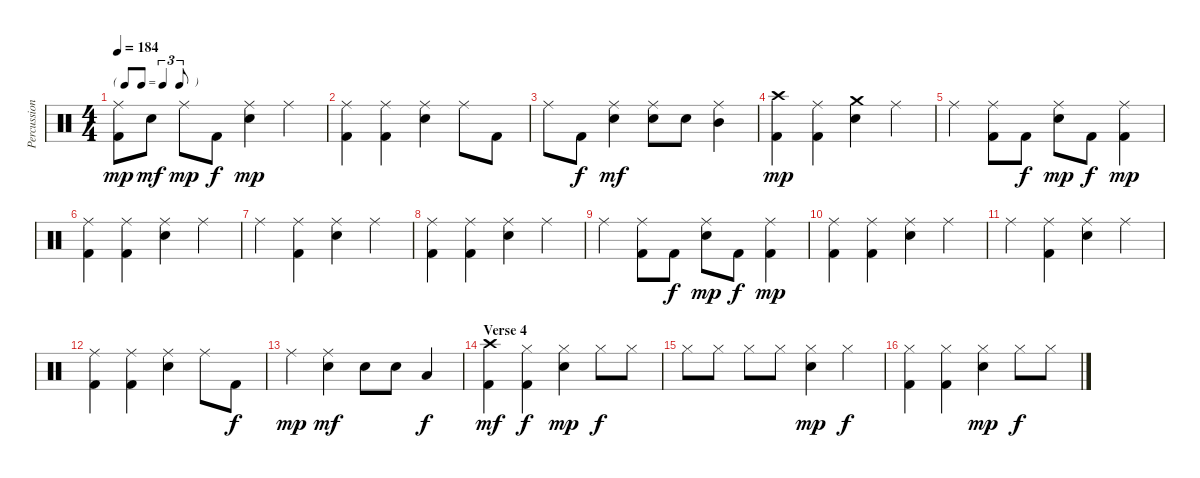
\track ("Percussion" "Percussion") {instrument percussion}
\staff {score}
\articulation defaults
\ts (4 4)
\tf triplet8th
\tempo 184
\clef neutral
\ks c
("Ride (middle)" "Kick (hit) 2").8{dy mp} "Electric Snare (hit)".8{dy mf} "Ride (middle)".8{dy mp} "Kick (hit) 2".8{dy f} ("Ride (middle)" "Electric Snare (hit)").4{dy mp} "Ride (middle)".4 |
("Ride (middle)" "Kick (hit) 2").4 ("Ride (middle)" "Kick (hit) 2").4 ("Ride (middle)" "Electric Snare (hit)").4 "Ride (middle)".8 "Kick (hit) 2".8 |
"Ride (middle)".8 "Kick (hit) 2".8{dy f} ("Ride (middle)" "Electric Snare (hit)").4{dy mf} ("Ride (middle)" "Electric Snare (hit)").8 "Electric Snare (hit)".8 ("Ride (middle)" "Mid Tom (hit)").4 |
("Crash high (hit)" "Kick (hit) 2").4{dy mp} ("Ride (middle)" "Kick (hit) 2").4 ("Crash medium (hit)" "Electric Snare (hit)").4 "Ride (middle)".4 |
"Ride (middle)".4 ("Ride (middle)" "Kick (hit) 2").8 "Kick (hit) 2".8{dy f} ("Ride (middle)" "Electric Snare (hit)").8{dy mp} "Kick (hit) 2".8{dy f} ("Ride (middle)" "Kick (hit) 2").4{dy mp} |
("Ride (middle)" "Kick (hit) 2").4 ("Ride (middle)" "Kick (hit) 2").4 ("Ride (middle)" "Electric Snare (hit)").4 "Ride (middle)".4 |
"Ride (middle)".4 ("Ride (middle)" "Kick (hit) 2").4 ("Ride (middle)" "Electric Snare (hit)").4 "Ride (middle)".4 |
("Ride (middle)" "Kick (hit) 2").4 ("Ride (middle)" "Kick (hit) 2").4 ("Ride (middle)" "Electric Snare (hit)").4 "Ride (middle)".4 |
"Ride (middle)".4 ("Ride (middle)" "Kick (hit) 2").8 "Kick (hit) 2".8{dy f} ("Ride (middle)" "Electric Snare (hit)").8{dy mp} "Kick (hit) 2".8{dy f} ("Ride (middle)" "Kick (hit) 2").4{dy mp} |
("Ride (middle)" "Kick (hit) 2").4 ("Ride (middle)" "Kick (hit) 2").4 ("Ride (middle)" "Electric Snare (hit)").4 "Ride (middle)".4 |
"Ride (middle)".4 ("Ride (middle)" "Kick (hit) 2").4 ("Ride (middle)" "Electric Snare (hit)").4 "Ride (middle)".4 |
("Ride (middle)" "Kick (hit) 2").4 ("Ride (middle)" "Kick (hit) 2").4 ("Ride (middle)" "Electric Snare (hit)").4 "Ride (middle)".8 "Kick (hit) 2".8{dy f} |
"Ride (middle)".4{dy mp} ("Ride (middle)" "Electric Snare (hit)").4{dy mf} "Electric Snare (hit)".8 "Electric Snare (hit)".8 "Low Tom (hit)".4{dy f} |
\section ("" "Verse 4")
("Crash high (hit)" "Kick (hit) 2").4{dy mf} ("Hi-Hat (closed)" "Kick (hit) 2").4{dy f} ("Hi-Hat (closed)" "Electric Snare (hit)").4{dy mp} "Hi-Hat (closed)".8{dy f} "Hi-Hat (closed)".8 |
"Hi-Hat (closed)".8 "Hi-Hat (closed)".8 "Hi-Hat (closed)".8 "Hi-Hat (closed)".8 ("Hi-Hat (closed)" "Electric Snare (hit)").4{dy mp} "Hi-Hat (closed)".4{dy f} |
("Hi-Hat (closed)" "Kick (hit) 2").4 ("Hi-Hat (closed)" "Kick (hit) 2").4 ("Hi-Hat (closed)" "Electric Snare (hit)").4{dy mp} "Hi-Hat (closed)".8{dy f} "Hi-Hat (closed)".8
